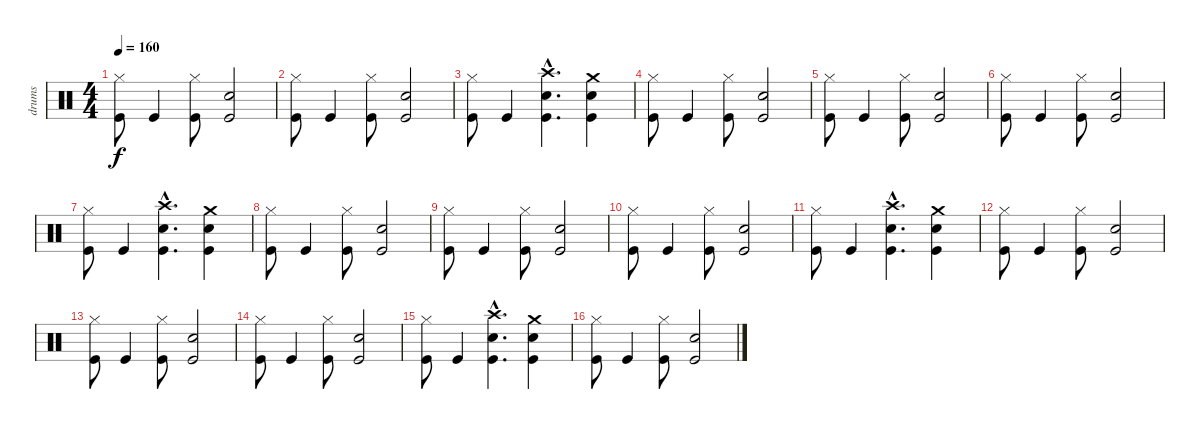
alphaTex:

\track ("drums" "drums") {instrument percussion}
\staff {score}
\articulation defaults
\ts (4 4)
\tempo 160
\clef neutral
\ks c
("Kick (hit)" "Hi-Hat (closed)").8{dy f} "Kick (hit)".4 ("Kick (hit)" "Hi-Hat (closed)").8 ("Kick (hit)" "Snare (hit) 2").2 |
("Kick (hit)" "Hi-Hat (closed)").8 "Kick (hit)".4 ("Kick (hit)" "Hi-Hat (closed)").8 ("Kick (hit)" "Snare (hit) 2").2 |
("Kick (hit)" "Hi-Hat (closed)").8 "Kick (hit)".4 ("Kick (hit)"{hac} "Snare (hit) 2"{hac} "Crash high (hit)"{hac}).4{d} ("Kick (hit)" "Snare (hit) 2" "Crash medium (hit)").4 |
("Kick (hit)" "Hi-Hat (closed)").8 "Kick (hit)".4 ("Kick (hit)" "Hi-Hat (closed)").8 ("Kick (hit)" "Snare (hit) 2").2 |
("Kick (hit)" "Hi-Hat (closed)").8 "Kick (hit)".4 ("Kick (hit)" "Hi-Hat (closed)").8 ("Kick (hit)" "Snare (hit) 2").2 |
("Kick (hit)" "Hi-Hat (closed)").8 "Kick (hit)".4 ("Kick (hit)" "Hi-Hat (closed)").8 ("Kick (hit)" "Snare (hit) 2").2 |
("Kick (hit)" "Hi-Hat (closed)").8 "Kick (hit)".4 ("Kick (hit)"{hac} "Snare (hit) 2"{hac} "Crash high (hit)"{hac}).4{d} ("Kick (hit)" "Snare (hit) 2" "Crash medium (hit)").4 |
("Kick (hit)" "Hi-Hat (closed)").8 "Kick (hit)".4 ("Kick (hit)" "Hi-Hat (closed)").8 ("Kick (hit)" "Snare (hit) 2").2 |
("Kick (hit)" "Hi-Hat (closed)").8 "Kick (hit)".4 ("Kick (hit)" "Hi-Hat (closed)").8 ("Kick (hit)" "Snare (hit) 2").2 |
("Kick (hit)" "Hi-Hat (closed)").8 "Kick (hit)".4 ("Kick (hit)" "Hi-Hat (closed)").8 ("Kick (hit)" "Snare (hit) 2").2 |
("Kick (hit)" "Hi-Hat (closed)").8 "Kick (hit)".4 ("Kick (hit)"{hac} "Snare (hit) 2"{hac} "Crash high (hit)"{hac}).4{d} ("Kick (hit)" "Snare (hit) 2" "Crash medium (hit)").4 |
("Kick (hit)" "Hi-Hat (closed)").8 "Kick (hit)".4 ("Kick (hit)" "Hi-Hat (closed)").8 ("Kick (hit)" "Snare (hit) 2").2 |
("Kick (hit)" "Hi-Hat (closed)").8 "Kick (hit)".4 ("Kick (hit)" "Hi-Hat (closed)").8 ("Kick (hit)" "Snare (hit) 2").2 |
("Kick (hit)" "Hi-Hat (closed)").8 "Kick (hit)".4 ("Kick (hit)" "Hi-Hat (closed)").8 ("Kick (hit)" "Snare (hit) 2").2 |
("Kick (hit)" "Hi-Hat (closed)").8 "Kick (hit)".4 ("Kick (hit)"{hac} "Snare (hit) 2"{hac} "Crash high (hit)"{hac}).4{d} ("Kick (hit)" "Snare (hit) 2" "Crash medium (hit)").4 |
("Kick (hit)" "Hi-Hat (closed)").8 "Kick (hit)".4 ("Kick (hit)" "Hi-Hat (closed)").8 ("Kick (hit)" "Snare (hit) 2").2
